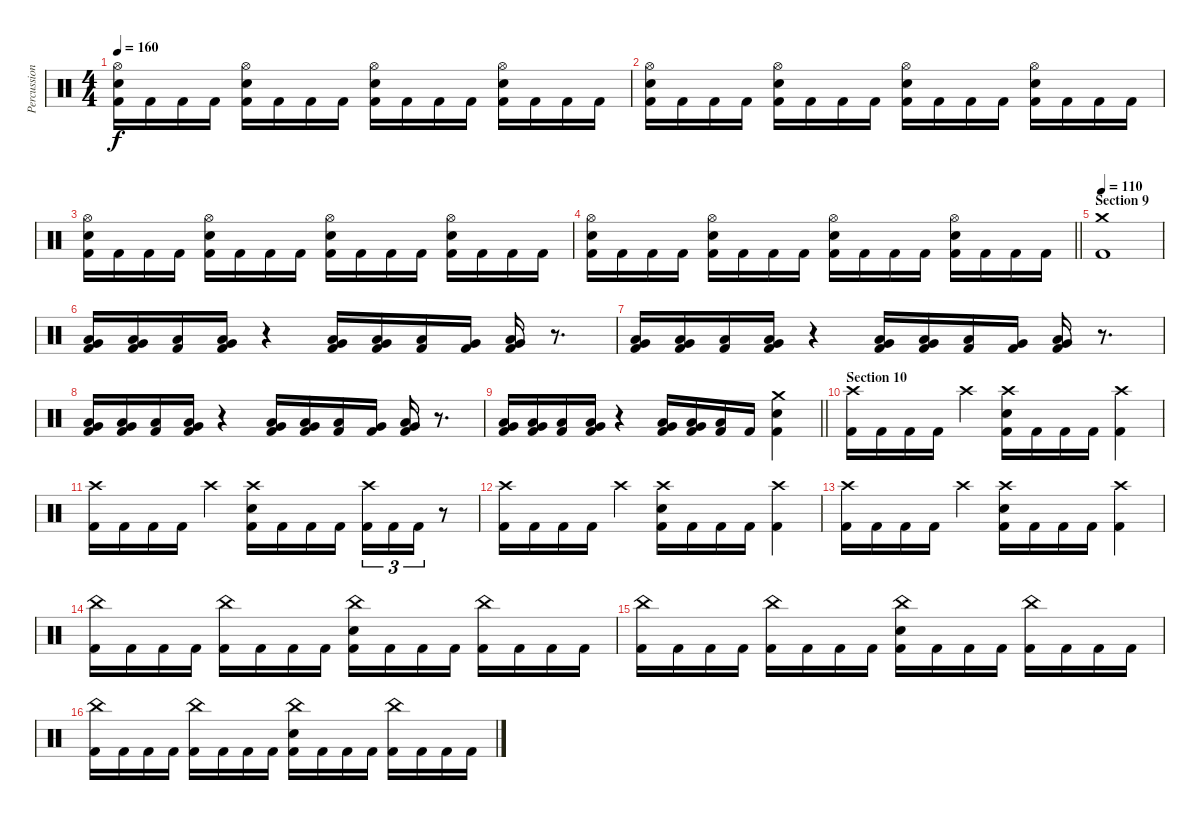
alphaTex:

\track ("Percussion" "Percussion") {instrument percussion}
\staff {score}
\articulation defaults
\ts (4 4)
\tempo 160
\clef neutral
\ks c
("Hi-Hat (open)" "Electric Snare (hit)" "Kick (hit) 2").16{dy f} "Kick (hit) 2".16 "Kick (hit) 2".16 "Kick (hit) 2".16 ("Hi-Hat (open)" "Electric Snare (hit)" "Kick (hit) 2").16 "Kick (hit) 2".16 "Kick (hit) 2".16 "Kick (hit) 2".16 ("Hi-Hat (open)" "Electric Snare (hit)" "Kick (hit) 2").16 "Kick (hit) 2".16 "Kick (hit) 2".16 "Kick (hit) 2".16 ("Hi-Hat (open)" "Electric Snare (hit)" "Kick (hit) 2").16 "Kick (hit) 2".16 "Kick (hit) 2".16 "Kick (hit) 2".16 |
("Hi-Hat (open)" "Electric Snare (hit)" "Kick (hit) 2").16 "Kick (hit) 2".16 "Kick (hit) 2".16 "Kick (hit) 2".16 ("Hi-Hat (open)" "Electric Snare (hit)" "Kick (hit) 2").16 "Kick (hit) 2".16 "Kick (hit) 2".16 "Kick (hit) 2".16 ("Hi-Hat (open)" "Electric Snare (hit)" "Kick (hit) 2").16 "Kick (hit) 2".16 "Kick (hit) 2".16 "Kick (hit) 2".16 ("Hi-Hat (open)" "Electric Snare (hit)" "Kick (hit) 2").16 "Kick (hit) 2".16 "Kick (hit) 2".16 "Kick (hit) 2".16 |
("Hi-Hat (open)" "Electric Snare (hit)" "Kick (hit) 2").16 "Kick (hit) 2".16 "Kick (hit) 2".16 "Kick (hit) 2".16 ("Hi-Hat (open)" "Electric Snare (hit)" "Kick (hit) 2").16 "Kick (hit) 2".16 "Kick (hit) 2".16 "Kick (hit) 2".16 ("Hi-Hat (open)" "Electric Snare (hit)" "Kick (hit) 2").16 "Kick (hit) 2".16 "Kick (hit) 2".16 "Kick (hit) 2".16 ("Hi-Hat (open)" "Electric Snare (hit)" "Kick (hit) 2").16 "Kick (hit) 2".16 "Kick (hit) 2".16 "Kick (hit) 2".16 |
\barLineRight lightlight
("Hi-Hat (open)" "Electric Snare (hit)" "Kick (hit) 2").16 "Kick (hit) 2".16 "Kick (hit) 2".16 "Kick (hit) 2".16 ("Hi-Hat (open)" "Electric Snare (hit)" "Kick (hit) 2").16 "Kick (hit) 2".16 "Kick (hit) 2".16 "Kick (hit) 2".16 ("Hi-Hat (open)" "Electric Snare (hit)" "Kick (hit) 2").16 "Kick (hit) 2".16 "Kick (hit) 2".16 "Kick (hit) 2".16 ("Hi-Hat (open)" "Electric Snare (hit)" "Kick (hit) 2").16 "Kick (hit) 2".16 "Kick (hit) 2".16 "Kick (hit) 2".16 |
\section ("" "Section 9")
\tempo 110
("Crash medium (hit)" "Kick (hit) 2").1 |
("Very Low Tom (hit)" "Low Tom (hit)" "Kick (hit) 2").16 ("Very Low Tom (hit)" "Low Tom (hit)" "Kick (hit) 2").16 ("Low Floor Tom (hit)" "Kick (hit) 2").16 ("Low Tom (hit)" "Very Low Tom (hit)" "Kick (hit) 2").16 r.4 ("Very Low Tom (hit)" "Low Tom (hit)" "Kick (hit) 2").16 ("Very Low Tom (hit)" "Low Tom (hit)" "Kick (hit) 2").16 ("Low Floor Tom (hit)" "Kick (hit) 2").16 ("Very Low Tom (hit)" "Kick (hit) 2").16 ("Low Tom (hit)" "Very Low Tom (hit)" "Kick (hit) 2").16 r.8{d} |
("Very Low Tom (hit)" "Low Tom (hit)" "Kick (hit) 2").16 ("Very Low Tom (hit)" "Low Tom (hit)" "Kick (hit) 2").16 ("Low Floor Tom (hit)" "Kick (hit) 2").16 ("Low Tom (hit)" "Very Low Tom (hit)" "Kick (hit) 2").16 r.4 ("Very Low Tom (hit)" "Low Tom (hit)" "Kick (hit) 2").16 ("Very Low Tom (hit)" "Low Tom (hit)" "Kick (hit) 2").16 ("Low Floor Tom (hit)" "Kick (hit) 2").16 ("Very Low Tom (hit)" "Kick (hit) 2").16 ("Low Tom (hit)" "Very Low Tom (hit)" "Kick (hit) 2").16 r.8{d} |
("Very Low Tom (hit)" "Low Tom (hit)" "Kick (hit) 2").16 ("Very Low Tom (hit)" "Low Tom (hit)" "Kick (hit) 2").16 ("Low Floor Tom (hit)" "Kick (hit) 2").16 ("Low Tom (hit)" "Very Low Tom (hit)" "Kick (hit) 2").16 r.4 ("Very Low Tom (hit)" "Low Tom (hit)" "Kick (hit) 2").16 ("Very Low Tom (hit)" "Low Tom (hit)" "Kick (hit) 2").16 ("Low Floor Tom (hit)" "Kick (hit) 2").16 ("Very Low Tom (hit)" "Kick (hit) 2").16 ("Low Tom (hit)" "Very Low Tom (hit)" "Kick (hit) 2").16 r.8{d} |
\barLineRight lightlight
("Very Low Tom (hit)" "Low Tom (hit)" "Kick (hit) 2").16 ("Very Low Tom (hit)" "Low Tom (hit)" "Kick (hit) 2").16 ("Low Floor Tom (hit)" "Kick (hit) 2").16 ("Low Tom (hit)" "Very Low Tom (hit)" "Kick (hit) 2").16 r.4 ("Very Low Tom (hit)" "Low Tom (hit)" "Kick (hit) 2").16 ("Very Low Tom (hit)" "Low Tom (hit)" "Kick (hit) 2").16 ("Low Floor Tom (hit)" "Kick (hit) 2").16 "Kick (hit) 2".16 ("Crash medium (hit)" "Electric Snare (hit)" "Kick (hit) 2").4 |
\section ("" "Section 10")
("Crash high (hit)" "Kick (hit) 2").16 "Kick (hit) 2".16 "Kick (hit) 2".16 "Kick (hit) 2".16 "Crash high (hit)".4 ("Crash high (hit)" "Electric Snare (hit)" "Kick (hit) 2").16 "Kick (hit) 2".16 "Kick (hit) 2".16 "Kick (hit) 2".16 ("Crash high (hit)" "Kick (hit) 2").4 |
("Crash high (hit)" "Kick (hit) 2").16 "Kick (hit) 2".16 "Kick (hit) 2".16 "Kick (hit) 2".16 "Crash high (hit)".4 ("Crash high (hit)" "Electric Snare (hit)" "Kick (hit) 2").16 "Kick (hit) 2".16 "Kick (hit) 2".16 "Kick (hit) 2".16 ("Crash high (hit)" "Kick (hit) 2").16{tu (3 2)} "Kick (hit) 2".16{tu (3 2)} "Kick (hit) 2".16{tu (3 2)} r.8 |
("Crash high (hit)" "Kick (hit) 2").16 "Kick (hit) 2".16 "Kick (hit) 2".16 "Kick (hit) 2".16 "Crash high (hit)".4 ("Crash high (hit)" "Electric Snare (hit)" "Kick (hit) 2").16 "Kick (hit) 2".16 "Kick (hit) 2".16 "Kick (hit) 2".16 ("Crash high (hit)" "Kick (hit) 2").4 |
("Crash high (hit)" "Kick (hit) 2").16 "Kick (hit) 2".16 "Kick (hit) 2".16 "Kick (hit) 2".16 "Crash high (hit)".4 ("Crash high (hit)" "Electric Snare (hit)" "Kick (hit) 2").16 "Kick (hit) 2".16 "Kick (hit) 2".16 "Kick (hit) 2".16 ("Crash high (hit)" "Kick (hit) 2").4 |
("China (hit)" "Kick (hit) 2").16 "Kick (hit) 2".16 "Kick (hit) 2".16 "Kick (hit) 2".16 ("China (hit)" "Kick (hit) 2").16 "Kick (hit) 2".16 "Kick (hit) 2".16 "Kick (hit) 2".16 ("China (hit)" "Electric Snare (hit)" "Kick (hit) 2").16 "Kick (hit) 2".16 "Kick (hit) 2".16 "Kick (hit) 2".16 ("China (hit)" "Kick (hit) 2").16 "Kick (hit) 2".16 "Kick (hit) 2".16 "Kick (hit) 2".16 |
("China (hit)" "Kick (hit) 2").16 "Kick (hit) 2".16 "Kick (hit) 2".16 "Kick (hit) 2".16 ("China (hit)" "Kick (hit) 2").16 "Kick (hit) 2".16 "Kick (hit) 2".16 "Kick (hit) 2".16 ("China (hit)" "Electric Snare (hit)" "Kick (hit) 2").16 "Kick (hit) 2".16 "Kick (hit) 2".16 "Kick (hit) 2".16 ("China (hit)" "Kick (hit) 2").16 "Kick (hit) 2".16 "Kick (hit) 2".16 "Kick (hit) 2".16 |
("China (hit)" "Kick (hit) 2").16 "Kick (hit) 2".16 "Kick (hit) 2".16 "Kick (hit) 2".16 ("China (hit)" "Kick (hit) 2").16 "Kick (hit) 2".16 "Kick (hit) 2".16 "Kick (hit) 2".16 ("China (hit)" "Electric Snare (hit)" "Kick (hit) 2").16 "Kick (hit) 2".16 "Kick (hit) 2".16 "Kick (hit) 2".16 ("China (hit)" "Kick (hit) 2").16 "Kick (hit) 2".16 "Kick (hit) 2".16 "Kick (hit) 2".16
